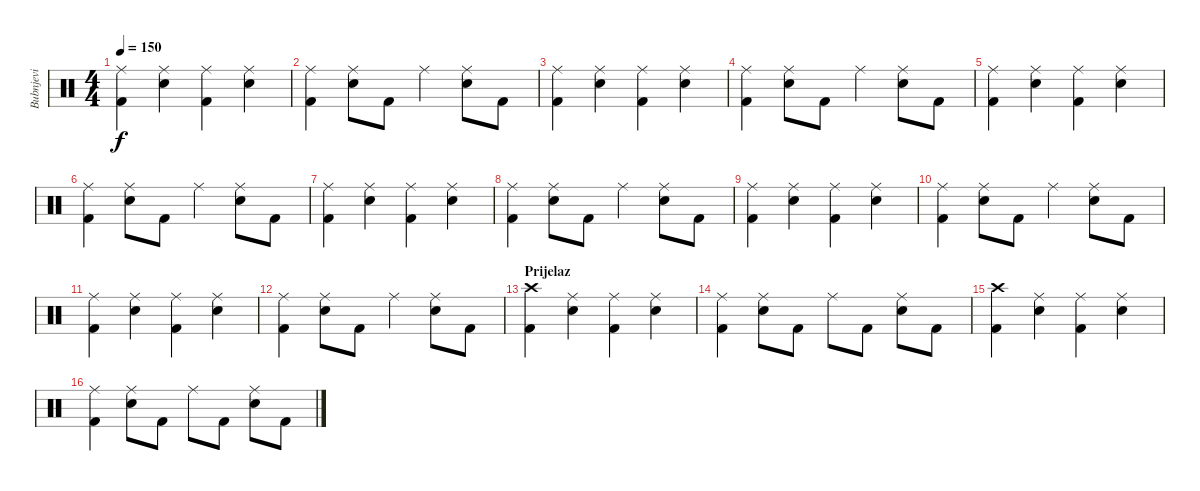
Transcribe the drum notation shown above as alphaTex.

\track ("Bubnjevi" "Bubnjevi") {instrument percussion}
\staff {score}
\articulation defaults
\ts (4 4)
\tempo 150
\clef neutral
\ks c
("Ride (middle)" "Kick (hit) 2").4{dy f} ("Ride (middle)" "Snare (hit) 2").4 ("Ride (middle)" "Kick (hit) 2").4 ("Ride (middle)" "Snare (hit) 2").4 |
("Ride (middle)" "Kick (hit) 2").4 ("Ride (middle)" "Snare (hit) 2").8 "Kick (hit) 2".8 "Ride (middle)".4 ("Ride (middle)" "Snare (hit) 2").8 "Kick (hit) 2".8 |
("Ride (middle)" "Kick (hit) 2").4 ("Ride (middle)" "Snare (hit) 2").4 ("Ride (middle)" "Kick (hit) 2").4 ("Ride (middle)" "Snare (hit) 2").4 |
("Ride (middle)" "Kick (hit) 2").4 ("Ride (middle)" "Snare (hit) 2").8 "Kick (hit) 2".8 "Ride (middle)".4 ("Ride (middle)" "Snare (hit) 2").8 "Kick (hit) 2".8 |
("Ride (middle)" "Kick (hit) 2").4 ("Ride (middle)" "Snare (hit) 2").4 ("Ride (middle)" "Kick (hit) 2").4 ("Ride (middle)" "Snare (hit) 2").4 |
("Ride (middle)" "Kick (hit) 2").4 ("Ride (middle)" "Snare (hit) 2").8 "Kick (hit) 2".8 "Ride (middle)".4 ("Ride (middle)" "Snare (hit) 2").8 "Kick (hit) 2".8 |
("Ride (middle)" "Kick (hit) 2").4 ("Ride (middle)" "Snare (hit) 2").4 ("Ride (middle)" "Kick (hit) 2").4 ("Ride (middle)" "Snare (hit) 2").4 |
("Ride (middle)" "Kick (hit) 2").4 ("Ride (middle)" "Snare (hit) 2").8 "Kick (hit) 2".8 "Ride (middle)".4 ("Ride (middle)" "Snare (hit) 2").8 "Kick (hit) 2".8 |
("Ride (middle)" "Kick (hit) 2").4 ("Ride (middle)" "Snare (hit) 2").4 ("Ride (middle)" "Kick (hit) 2").4 ("Ride (middle)" "Snare (hit) 2").4 |
("Ride (middle)" "Kick (hit) 2").4 ("Ride (middle)" "Snare (hit) 2").8 "Kick (hit) 2".8 "Ride (middle)".4 ("Ride (middle)" "Snare (hit) 2").8 "Kick (hit) 2".8 |
("Ride (middle)" "Kick (hit) 2").4 ("Ride (middle)" "Snare (hit) 2").4 ("Ride (middle)" "Kick (hit) 2").4 ("Ride (middle)" "Snare (hit) 2").4 |
("Ride (middle)" "Kick (hit) 2").4 ("Ride (middle)" "Snare (hit) 2").8 "Kick (hit) 2".8 "Ride (middle)".4 ("Ride (middle)" "Snare (hit) 2").8 "Kick (hit) 2".8 |
\section ("" "Prijelaz")
("Crash high (hit)" "Kick (hit) 2").4 ("Ride (middle)" "Snare (hit) 2").4 ("Ride (middle)" "Kick (hit) 2").4 ("Ride (middle)" "Snare (hit) 2").4 |
("Ride (middle)" "Kick (hit) 2").4 ("Ride (middle)" "Snare (hit) 2").8 "Kick (hit) 2".8 "Ride (middle)".8 "Kick (hit) 2".8 ("Ride (middle)" "Snare (hit) 2").8 "Kick (hit) 2".8 |
("Crash high (hit)" "Kick (hit) 2").4 ("Ride (middle)" "Snare (hit) 2").4 ("Ride (middle)" "Kick (hit) 2").4 ("Ride (middle)" "Snare (hit) 2").4 |
("Ride (middle)" "Kick (hit) 2").4 ("Ride (middle)" "Snare (hit) 2").8 "Kick (hit) 2".8 "Ride (middle)".8 "Kick (hit) 2".8 ("Ride (middle)" "Snare (hit) 2").8 "Kick (hit) 2".8
